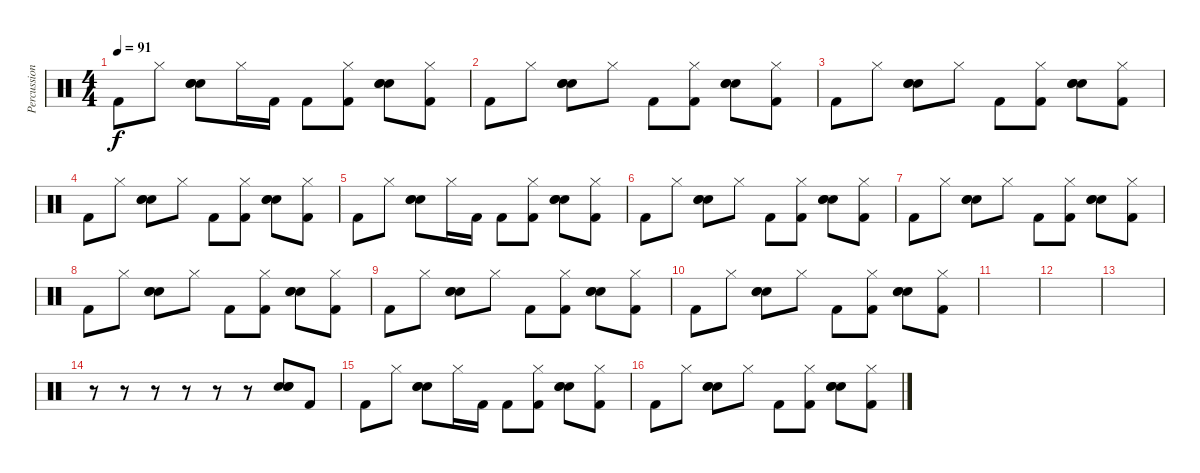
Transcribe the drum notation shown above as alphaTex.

\track ("Percussion" "Percussion") {instrument percussion}
\staff {score}
\articulation defaults
\ts (4 4)
\tempo 91
\clef neutral
\ks c "Kick (hit) 2".8{dy f} "Hi-Hat (closed)".8
("Hand Clap (hit)" "Electric Snare (hit)" "Snare (hit) 2").8 "Hi-Hat (closed)".16 "Kick (hit) 2".16 "Kick (hit) 2".8 ("Hi-Hat (closed)" "Kick (hit) 2").8 ("Hand Clap (hit)" "Electric Snare (hit)" "Snare (hit) 2").8 ("Hi-Hat (closed)" "Kick (hit) 2").8 |
"Kick (hit) 2".8 "Hi-Hat (closed)".8 ("Hand Clap (hit)" "Electric Snare (hit)" "Snare (hit) 2").8 "Hi-Hat (closed)".8 "Kick (hit) 2".8 ("Hi-Hat (closed)" "Kick (hit) 2").8 ("Hand Clap (hit)" "Electric Snare (hit)" "Snare (hit) 2").8 ("Hi-Hat (closed)" "Kick (hit) 2").8 |
"Kick (hit) 2".8 "Hi-Hat (closed)".8 ("Hand Clap (hit)" "Electric Snare (hit)" "Snare (hit) 2").8 "Hi-Hat (closed)".8 "Kick (hit) 2".8 ("Hi-Hat (closed)" "Kick (hit) 2").8 ("Hand Clap (hit)" "Electric Snare (hit)" "Snare (hit) 2").8 ("Hi-Hat (closed)" "Kick (hit) 2").8 |
"Kick (hit) 2".8 "Hi-Hat (closed)".8 ("Hand Clap (hit)" "Electric Snare (hit)" "Snare (hit) 2").8 "Hi-Hat (closed)".8 "Kick (hit) 2".8 ("Hi-Hat (closed)" "Kick (hit) 2").8 ("Hand Clap (hit)" "Electric Snare (hit)" "Snare (hit) 2").8 ("Hi-Hat (closed)" "Kick (hit) 2").8 |
"Kick (hit) 2".8 "Hi-Hat (closed)".8 ("Hand Clap (hit)" "Electric Snare (hit)" "Snare (hit) 2").8 "Hi-Hat (closed)".16 "Kick (hit) 2".16 "Kick (hit) 2".8 ("Hi-Hat (closed)" "Kick (hit) 2").8 ("Hand Clap (hit)" "Electric Snare (hit)" "Snare (hit) 2").8 ("Hi-Hat (closed)" "Kick (hit) 2").8 |
"Kick (hit) 2".8 "Hi-Hat (closed)".8 ("Hand Clap (hit)" "Electric Snare (hit)" "Snare (hit) 2").8 "Hi-Hat (closed)".8 "Kick (hit) 2".8 ("Hi-Hat (closed)" "Kick (hit) 2").8 ("Hand Clap (hit)" "Electric Snare (hit)" "Snare (hit) 2").8 ("Hi-Hat (closed)" "Kick (hit) 2").8 |
"Kick (hit) 2".8 "Hi-Hat (closed)".8 ("Hand Clap (hit)" "Electric Snare (hit)" "Snare (hit) 2").8 "Hi-Hat (closed)".8 "Kick (hit) 2".8 ("Hi-Hat (closed)" "Kick (hit) 2").8 ("Hand Clap (hit)" "Electric Snare (hit)" "Snare (hit) 2").8 ("Hi-Hat (closed)" "Kick (hit) 2").8 |
"Kick (hit) 2".8 "Hi-Hat (closed)".8 ("Hand Clap (hit)" "Electric Snare (hit)" "Snare (hit) 2").8 "Hi-Hat (closed)".8 "Kick (hit) 2".8 ("Hi-Hat (closed)" "Kick (hit) 2").8 ("Hand Clap (hit)" "Electric Snare (hit)" "Snare (hit) 2").8 ("Hi-Hat (closed)" "Kick (hit) 2").8 |
"Kick (hit) 2".8 "Hi-Hat (closed)".8 ("Hand Clap (hit)" "Electric Snare (hit)" "Snare (hit) 2").8 "Hi-Hat (closed)".8 "Kick (hit) 2".8 ("Hi-Hat (closed)" "Kick (hit) 2").8 ("Hand Clap (hit)" "Electric Snare (hit)" "Snare (hit) 2").8 ("Hi-Hat (closed)" "Kick (hit) 2").8 |
"Kick (hit) 2".8 "Hi-Hat (closed)".8 ("Hand Clap (hit)" "Electric Snare (hit)" "Snare (hit) 2").8 "Hi-Hat (closed)".8 "Kick (hit) 2".8 ("Hi-Hat (closed)" "Kick (hit) 2").8 ("Hand Clap (hit)" "Electric Snare (hit)" "Snare (hit) 2").8 ("Hi-Hat (closed)" "Kick (hit) 2").8 |
|
|
|
r.8 r.8 r.8 r.8 r.8 r.8 ("Hand Clap (hit)" "Electric Snare (hit)" "Snare (hit) 2").8 "Kick (hit) 2".8 |
"Kick (hit) 2".8 "Hi-Hat (closed)".8 ("Hand Clap (hit)" "Electric Snare (hit)" "Snare (hit) 2").8 "Hi-Hat (closed)".16 "Kick (hit) 2".16 "Kick (hit) 2".8 ("Hi-Hat (closed)" "Kick (hit) 2").8 ("Hand Clap (hit)" "Electric Snare (hit)" "Snare (hit) 2").8 ("Hi-Hat (closed)" "Kick (hit) 2").8 |
"Kick (hit) 2".8 "Hi-Hat (closed)".8 ("Hand Clap (hit)" "Electric Snare (hit)" "Snare (hit) 2").8 "Hi-Hat (closed)".8 "Kick (hit) 2".8 ("Hi-Hat (closed)" "Kick (hit) 2").8 ("Hand Clap (hit)" "Electric Snare (hit)" "Snare (hit) 2").8 ("Hi-Hat (closed)" "Kick (hit) 2").8
